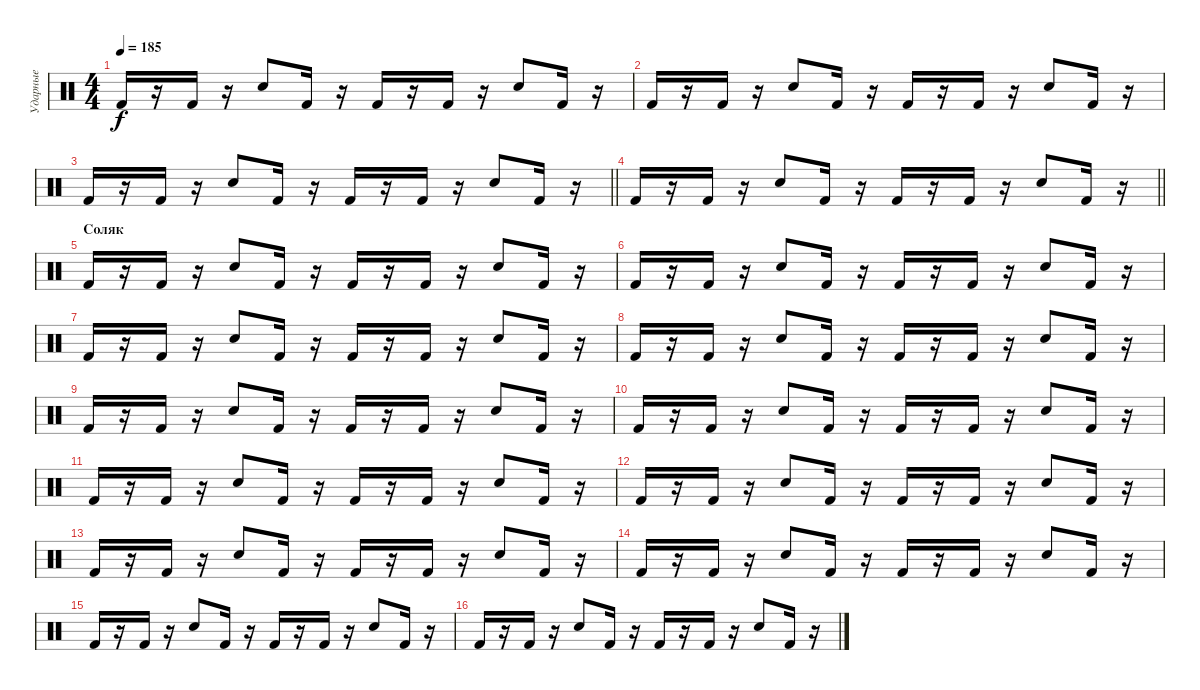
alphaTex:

\track ("Ударные" "Ударные") {instrument percussion}
\staff {score}
\articulation defaults
\ts (4 4)
\tempo 185
\clef neutral
\ks c "Kick (hit) 2".16{dy f}
r.16 "Kick (hit) 2".16 r.16 "Electric Snare (hit)".8 "Kick (hit) 2".16 r.16 "Kick (hit) 2".16 r.16 "Kick (hit) 2".16 r.16 "Electric Snare (hit)".8 "Kick (hit) 2".16 r.16 |
"Kick (hit) 2".16 r.16 "Kick (hit) 2".16 r.16 "Electric Snare (hit)".8 "Kick (hit) 2".16 r.16 "Kick (hit) 2".16 r.16 "Kick (hit) 2".16 r.16 "Electric Snare (hit)".8 "Kick (hit) 2".16 r.16 |
\barLineRight lightlight "Kick (hit) 2".16
r.16 "Kick (hit) 2".16 r.16 "Electric Snare (hit)".8 "Kick (hit) 2".16 r.16 "Kick (hit) 2".16 r.16 "Kick (hit) 2".16 r.16 "Electric Snare (hit)".8 "Kick (hit) 2".16 r.16 |
\barLineRight lightlight "Kick (hit) 2".16
r.16 "Kick (hit) 2".16 r.16 "Electric Snare (hit)".8 "Kick (hit) 2".16 r.16 "Kick (hit) 2".16 r.16 "Kick (hit) 2".16 r.16 "Electric Snare (hit)".8 "Kick (hit) 2".16 r.16 |
\section ("" "Соляк")
"Kick (hit) 2".16 r.16 "Kick (hit) 2".16 r.16 "Electric Snare (hit)".8 "Kick (hit) 2".16 r.16 "Kick (hit) 2".16 r.16 "Kick (hit) 2".16 r.16 "Electric Snare (hit)".8 "Kick (hit) 2".16 r.16 |
"Kick (hit) 2".16 r.16 "Kick (hit) 2".16 r.16 "Electric Snare (hit)".8 "Kick (hit) 2".16 r.16 "Kick (hit) 2".16 r.16 "Kick (hit) 2".16 r.16 "Electric Snare (hit)".8 "Kick (hit) 2".16 r.16 |
"Kick (hit) 2".16 r.16 "Kick (hit) 2".16 r.16 "Electric Snare (hit)".8 "Kick (hit) 2".16 r.16 "Kick (hit) 2".16 r.16 "Kick (hit) 2".16 r.16 "Electric Snare (hit)".8 "Kick (hit) 2".16 r.16 |
"Kick (hit) 2".16 r.16 "Kick (hit) 2".16 r.16 "Electric Snare (hit)".8 "Kick (hit) 2".16 r.16 "Kick (hit) 2".16 r.16 "Kick (hit) 2".16 r.16 "Electric Snare (hit)".8 "Kick (hit) 2".16 r.16 |
"Kick (hit) 2".16 r.16 "Kick (hit) 2".16 r.16 "Electric Snare (hit)".8 "Kick (hit) 2".16 r.16 "Kick (hit) 2".16 r.16 "Kick (hit) 2".16 r.16 "Electric Snare (hit)".8 "Kick (hit) 2".16 r.16 |
"Kick (hit) 2".16 r.16 "Kick (hit) 2".16 r.16 "Electric Snare (hit)".8 "Kick (hit) 2".16 r.16 "Kick (hit) 2".16 r.16 "Kick (hit) 2".16 r.16 "Electric Snare (hit)".8 "Kick (hit) 2".16 r.16 |
"Kick (hit) 2".16 r.16 "Kick (hit) 2".16 r.16 "Electric Snare (hit)".8 "Kick (hit) 2".16 r.16 "Kick (hit) 2".16 r.16 "Kick (hit) 2".16 r.16 "Electric Snare (hit)".8 "Kick (hit) 2".16 r.16 |
"Kick (hit) 2".16 r.16 "Kick (hit) 2".16 r.16 "Electric Snare (hit)".8 "Kick (hit) 2".16 r.16 "Kick (hit) 2".16 r.16 "Kick (hit) 2".16 r.16 "Electric Snare (hit)".8 "Kick (hit) 2".16 r.16 |
"Kick (hit) 2".16 r.16 "Kick (hit) 2".16 r.16 "Electric Snare (hit)".8 "Kick (hit) 2".16 r.16 "Kick (hit) 2".16 r.16 "Kick (hit) 2".16 r.16 "Electric Snare (hit)".8 "Kick (hit) 2".16 r.16 |
"Kick (hit) 2".16 r.16 "Kick (hit) 2".16 r.16 "Electric Snare (hit)".8 "Kick (hit) 2".16 r.16 "Kick (hit) 2".16 r.16 "Kick (hit) 2".16 r.16 "Electric Snare (hit)".8 "Kick (hit) 2".16 r.16 |
"Kick (hit) 2".16 r.16 "Kick (hit) 2".16 r.16 "Electric Snare (hit)".8 "Kick (hit) 2".16 r.16 "Kick (hit) 2".16 r.16 "Kick (hit) 2".16 r.16 "Electric Snare (hit)".8 "Kick (hit) 2".16 r.16 |
"Kick (hit) 2".16 r.16 "Kick (hit) 2".16 r.16 "Electric Snare (hit)".8 "Kick (hit) 2".16 r.16 "Kick (hit) 2".16 r.16 "Kick (hit) 2".16 r.16 "Electric Snare (hit)".8 "Kick (hit) 2".16 r.16
